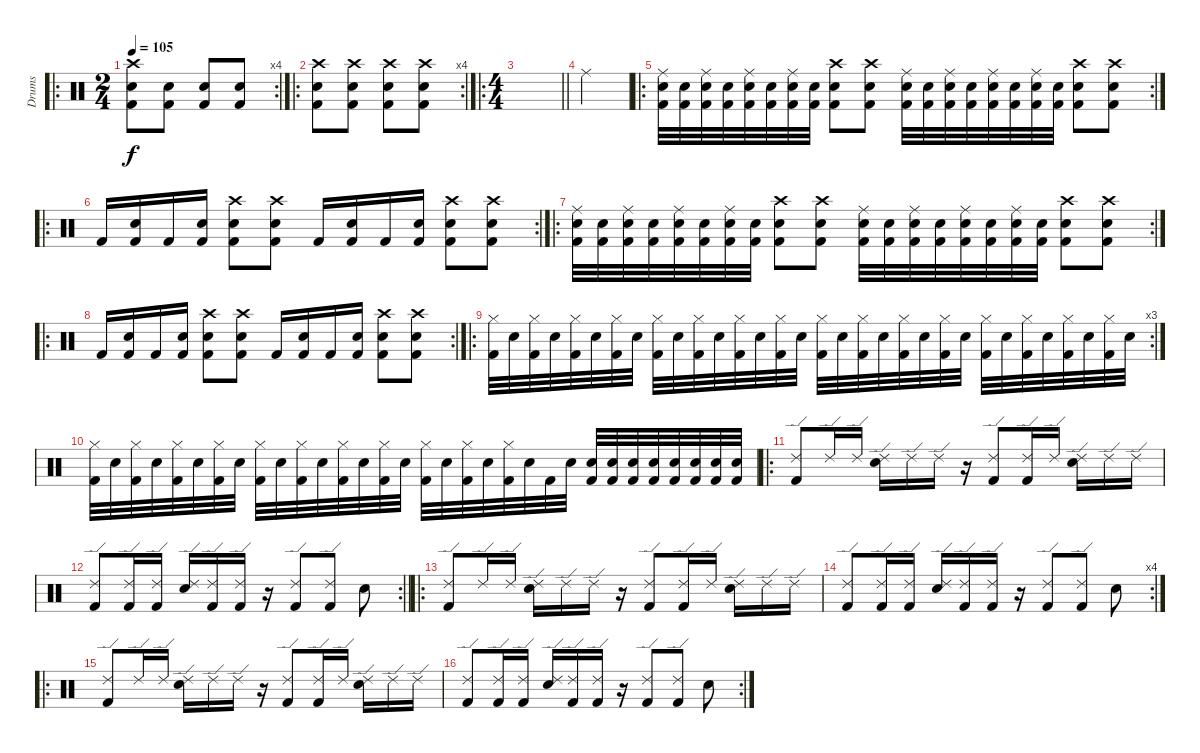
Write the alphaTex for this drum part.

\track ("Drums" "Drums") {instrument percussion}
\staff {score}
\articulation defaults
\ro
\rc 4
\ts (2 4)
\tempo 105
\clef neutral
\ks c
("Kick (hit) 2" "Electric Snare (hit)" "Crash high (hit)").8{dy f} ("Electric Snare (hit)" "Kick (hit) 2").8 ("Electric Snare (hit)" "Kick (hit) 2").8 ("Electric Snare (hit)" "Kick (hit) 2").8 |
\ro
\rc 4
("Electric Snare (hit)" "Kick (hit) 2" "Crash high (hit)").8 ("Electric Snare (hit)" "Kick (hit) 2" "Crash high (hit)").8 ("Electric Snare (hit)" "Kick (hit) 2" "Crash high (hit)").8 ("Electric Snare (hit)" "Kick (hit) 2" "Crash high (hit)").8 |
\ro
\ts (4 4)
\barLineRight lightlight
|
"Ride (middle)".4 |
\ro
\rc 2
("Ride (middle)" "Electric Snare (hit)" "Kick (hit) 2").32 ("Electric Snare (hit)" "Kick (hit) 2").32 ("Ride (middle)" "Electric Snare (hit)" "Kick (hit) 2").32 ("Electric Snare (hit)" "Kick (hit) 2").32 ("Ride (middle)" "Electric Snare (hit)" "Kick (hit) 2").32 ("Electric Snare (hit)" "Kick (hit) 2").32 ("Ride (middle)" "Electric Snare (hit)" "Kick (hit) 2").32 ("Electric Snare (hit)" "Kick (hit) 2").32 ("Electric Snare (hit)" "Crash high (hit)" "Kick (hit) 2").8 ("Electric Snare (hit)" "Crash high (hit)" "Kick (hit) 2").8 ("Ride (middle)" "Electric Snare (hit)" "Kick (hit) 2").32 ("Electric Snare (hit)" "Kick (hit) 2").32 ("Ride (middle)" "Electric Snare (hit)" "Kick (hit) 2").32 ("Electric Snare (hit)" "Kick (hit) 2").32 ("Ride (middle)" "Electric Snare (hit)" "Kick (hit) 2").32 ("Electric Snare (hit)" "Kick (hit) 2").32 ("Ride (middle)" "Electric Snare (hit)" "Kick (hit) 2").32 ("Electric Snare (hit)" "Kick (hit) 2").32 ("Electric Snare (hit)" "Crash high (hit)" "Kick (hit) 2").8 ("Electric Snare (hit)" "Crash high (hit)" "Kick (hit) 2").8 |
\ro
\rc 2 "Kick (hit) 2".16
("Electric Snare (hit)" "Kick (hit) 2").16 "Kick (hit) 2".16 ("Electric Snare (hit)" "Kick (hit) 2").16 ("Electric Snare (hit)" "Kick (hit) 2" "Crash high (hit)").8 ("Electric Snare (hit)" "Kick (hit) 2" "Crash high (hit)").8 "Kick (hit) 2".16 ("Electric Snare (hit)" "Kick (hit) 2").16 "Kick (hit) 2".16 ("Electric Snare (hit)" "Kick (hit) 2").16 ("Electric Snare (hit)" "Kick (hit) 2" "Crash high (hit)").8 ("Electric Snare (hit)" "Kick (hit) 2" "Crash high (hit)").8 |
\ro
\rc 2
("Ride (middle)" "Electric Snare (hit)" "Kick (hit) 2").32 ("Electric Snare (hit)" "Kick (hit) 2").32 ("Ride (middle)" "Electric Snare (hit)" "Kick (hit) 2").32 ("Electric Snare (hit)" "Kick (hit) 2").32 ("Ride (middle)" "Electric Snare (hit)" "Kick (hit) 2").32 ("Electric Snare (hit)" "Kick (hit) 2").32 ("Ride (middle)" "Electric Snare (hit)" "Kick (hit) 2").32 ("Electric Snare (hit)" "Kick (hit) 2").32 ("Electric Snare (hit)" "Crash high (hit)" "Kick (hit) 2").8 ("Electric Snare (hit)" "Crash high (hit)" "Kick (hit) 2").8 ("Ride (middle)" "Electric Snare (hit)" "Kick (hit) 2").32 ("Electric Snare (hit)" "Kick (hit) 2").32 ("Ride (middle)" "Electric Snare (hit)" "Kick (hit) 2").32 ("Electric Snare (hit)" "Kick (hit) 2").32 ("Ride (middle)" "Electric Snare (hit)" "Kick (hit) 2").32 ("Electric Snare (hit)" "Kick (hit) 2").32 ("Ride (middle)" "Electric Snare (hit)" "Kick (hit) 2").32 ("Electric Snare (hit)" "Kick (hit) 2").32 ("Electric Snare (hit)" "Crash high (hit)" "Kick (hit) 2").8 ("Electric Snare (hit)" "Crash high (hit)" "Kick (hit) 2").8 |
\ro
\rc 2 "Kick (hit) 2".16
("Electric Snare (hit)" "Kick (hit) 2").16 "Kick (hit) 2".16 ("Electric Snare (hit)" "Kick (hit) 2").16 ("Electric Snare (hit)" "Kick (hit) 2" "Crash high (hit)").8 ("Electric Snare (hit)" "Kick (hit) 2" "Crash high (hit)").8 "Kick (hit) 2".16 ("Electric Snare (hit)" "Kick (hit) 2").16 "Kick (hit) 2".16 ("Electric Snare (hit)" "Kick (hit) 2").16 ("Electric Snare (hit)" "Kick (hit) 2" "Crash high (hit)").8 ("Electric Snare (hit)" "Kick (hit) 2" "Crash high (hit)").8 |
\ro
\rc 3
("Hi-Hat (closed)" "Kick (hit) 2").32 "Electric Snare (hit)".32 ("Hi-Hat (closed)" "Kick (hit) 2").32 "Electric Snare (hit)".32 ("Hi-Hat (closed)" "Kick (hit) 2").32 "Electric Snare (hit)".32 ("Hi-Hat (closed)" "Kick (hit) 2").32 "Electric Snare (hit)".32 ("Hi-Hat (closed)" "Kick (hit) 2").32 "Electric Snare (hit)".32 ("Hi-Hat (closed)" "Kick (hit) 2").32 "Electric Snare (hit)".32 ("Hi-Hat (closed)" "Kick (hit) 2").32 "Electric Snare (hit)".32 ("Hi-Hat (closed)" "Kick (hit) 2").32 "Electric Snare (hit)".32 ("Hi-Hat (closed)" "Kick (hit) 2").32 "Electric Snare (hit)".32 ("Hi-Hat (closed)" "Kick (hit) 2").32 "Electric Snare (hit)".32 ("Hi-Hat (closed)" "Kick (hit) 2").32 "Electric Snare (hit)".32 ("Hi-Hat (closed)" "Kick (hit) 2").32 "Electric Snare (hit)".32 ("Hi-Hat (closed)" "Kick (hit) 2").32 "Electric Snare (hit)".32 ("Hi-Hat (closed)" "Kick (hit) 2").32 "Electric Snare (hit)".32 ("Hi-Hat (closed)" "Kick (hit) 2").32 "Electric Snare (hit)".32 ("Hi-Hat (closed)" "Kick (hit) 2").32 "Electric Snare (hit)".32 |
("Hi-Hat (closed)" "Kick (hit) 2").32 "Electric Snare (hit)".32 ("Hi-Hat (closed)" "Kick (hit) 2").32 "Electric Snare (hit)".32 ("Hi-Hat (closed)" "Kick (hit) 2").32 "Electric Snare (hit)".32 ("Hi-Hat (closed)" "Kick (hit) 2").32 "Electric Snare (hit)".32 ("Hi-Hat (closed)" "Kick (hit) 2").32 "Electric Snare (hit)".32 ("Hi-Hat (closed)" "Kick (hit) 2").32 "Electric Snare (hit)".32 ("Hi-Hat (closed)" "Kick (hit) 2").32 "Electric Snare (hit)".32 ("Hi-Hat (closed)" "Kick (hit) 2").32 "Electric Snare (hit)".32 ("Hi-Hat (closed)" "Kick (hit) 2").32 "Electric Snare (hit)".32 ("Hi-Hat (closed)" "Kick (hit) 2").32 "Electric Snare (hit)".32 ("Hi-Hat (closed)" "Kick (hit) 2").32 "Electric Snare (hit)".32 "Kick (hit) 2".32 "Electric Snare (hit)".32 ("Electric Snare (hit)" "Kick (hit) 2").32 ("Electric Snare (hit)" "Kick (hit) 2").32 ("Electric Snare (hit)" "Kick (hit) 2").32 ("Electric Snare (hit)" "Kick (hit) 2").32 ("Electric Snare (hit)" "Kick (hit) 2").32 ("Electric Snare (hit)" "Kick (hit) 2").32 ("Electric Snare (hit)" "Kick (hit) 2").32 ("Electric Snare (hit)" "Kick (hit) 2").32 |
\ro
("Kick (hit) 2" "Ride (edge) 2").8 "Ride (edge) 2".16 "Ride (edge) 2".16 ("Electric Snare (hit)" "Ride (edge) 2").16 "Ride (edge) 2".16 "Ride (edge) 2".16 r.16 ("Kick (hit) 2" "Ride (edge) 2").8 ("Kick (hit) 2" "Ride (edge) 2").16 "Ride (edge) 2".16 ("Electric Snare (hit)" "Ride (edge) 2").16 "Ride (edge) 2".16 "Ride (edge) 2".16 |
\rc 2
\barLineRight lightlight
("Kick (hit) 2" "Ride (edge) 2").8 ("Kick (hit) 2" "Ride (edge) 2").16 ("Kick (hit) 2" "Ride (edge) 2").16 ("Electric Snare (hit)" "Ride (edge) 2").16 ("Kick (hit) 2" "Ride (edge) 2").16 ("Kick (hit) 2" "Ride (edge) 2").16 r.16 ("Ride (edge) 2" "Kick (hit) 2").8 ("Ride (edge) 2" "Kick (hit) 2").8 "Electric Snare (hit)".8 |
\ro
("Kick (hit) 2" "Ride (edge) 2").8 "Ride (edge) 2".16 "Ride (edge) 2".16 ("Electric Snare (hit)" "Ride (edge) 2").16 "Ride (edge) 2".16 "Ride (edge) 2".16 r.16 ("Kick (hit) 2" "Ride (edge) 2").8 ("Kick (hit) 2" "Ride (edge) 2").16 "Ride (edge) 2".16 ("Electric Snare (hit)" "Ride (edge) 2").16 "Ride (edge) 2".16 "Ride (edge) 2".16 |
\rc 4
("Kick (hit) 2" "Ride (edge) 2").8 ("Kick (hit) 2" "Ride (edge) 2").16 ("Kick (hit) 2" "Ride (edge) 2").16 ("Electric Snare (hit)" "Ride (edge) 2").16 ("Kick (hit) 2" "Ride (edge) 2").16 ("Kick (hit) 2" "Ride (edge) 2").16 r.16 ("Ride (edge) 2" "Kick (hit) 2").8 ("Ride (edge) 2" "Kick (hit) 2").8 "Electric Snare (hit)".8 |
\ro
("Kick (hit) 2" "Ride (edge) 2").8 "Ride (edge) 2".16 "Ride (edge) 2".16 ("Electric Snare (hit)" "Ride (edge) 2").16 "Ride (edge) 2".16 "Ride (edge) 2".16 r.16 ("Kick (hit) 2" "Ride (edge) 2").8 ("Kick (hit) 2" "Ride (edge) 2").16 "Ride (edge) 2".16 ("Electric Snare (hit)" "Ride (edge) 2").16 "Ride (edge) 2".16 "Ride (edge) 2".16 |
\rc 2
("Kick (hit) 2" "Ride (edge) 2").8 ("Kick (hit) 2" "Ride (edge) 2").16 ("Kick (hit) 2" "Ride (edge) 2").16 ("Electric Snare (hit)" "Ride (edge) 2").16 ("Kick (hit) 2" "Ride (edge) 2").16 ("Kick (hit) 2" "Ride (edge) 2").16 r.16 ("Ride (edge) 2" "Kick (hit) 2").8 ("Ride (edge) 2" "Kick (hit) 2").8 "Electric Snare (hit)".8
